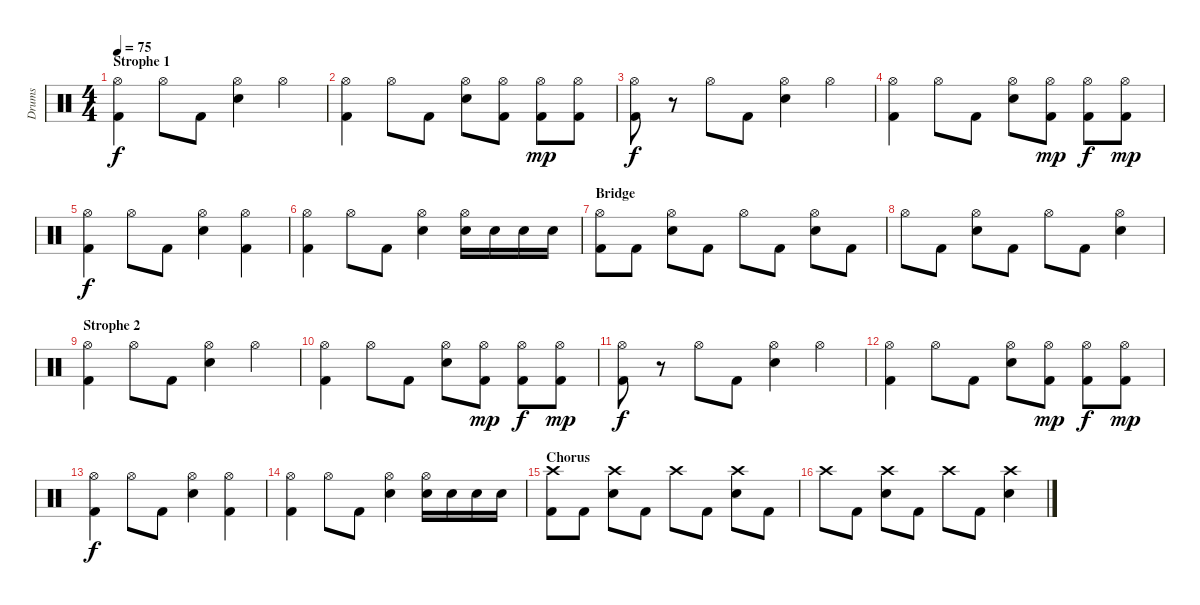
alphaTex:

\track ("Drums" "Drums") {instrument percussion}
\staff {score}
\articulation defaults
\ts (4 4)
\section ("" "Strophe 1")
\tempo 75
\clef neutral
\ks c
("Hi-Hat (open)" "Kick (hit) 2").4{dy f} "Hi-Hat (open)".8 "Kick (hit) 2".8 ("Hi-Hat (open)" "Snare (hit) 2").4 "Hi-Hat (open)".4 |
("Hi-Hat (open)" "Kick (hit) 2").4 "Hi-Hat (open)".8 "Kick (hit) 2".8 ("Hi-Hat (open)" "Snare (hit) 2").8 ("Hi-Hat (open)" "Kick (hit) 2").8 ("Hi-Hat (open)" "Kick (hit) 2").8{dy mp} ("Hi-Hat (open)" "Kick (hit) 2").8 |
("Hi-Hat (open)" "Kick (hit) 2").8{dy f} r.8 "Hi-Hat (open)".8 "Kick (hit) 2".8 ("Hi-Hat (open)" "Snare (hit) 2").4 "Hi-Hat (open)".4 |
("Hi-Hat (open)" "Kick (hit) 2").4 "Hi-Hat (open)".8 "Kick (hit) 2".8 ("Hi-Hat (open)" "Snare (hit) 2").8 ("Hi-Hat (open)" "Kick (hit) 2").8{dy mp} ("Hi-Hat (open)" "Kick (hit) 2").8{dy f} ("Hi-Hat (open)" "Kick (hit) 2").8{dy mp} |
("Hi-Hat (open)" "Kick (hit) 2").4{dy f} "Hi-Hat (open)".8 "Kick (hit) 2".8 ("Hi-Hat (open)" "Snare (hit) 2").4 ("Hi-Hat (open)" "Kick (hit) 2").4 |
("Hi-Hat (open)" "Kick (hit) 2").4 "Hi-Hat (open)".8 "Kick (hit) 2".8 ("Hi-Hat (open)" "Snare (hit) 2").4 ("Hi-Hat (open)" "Snare (hit) 2").16 "Snare (hit) 2".16 "Snare (hit) 2".16 "Snare (hit) 2".16 |
\section ("" "Bridge")
("Hi-Hat (open)" "Kick (hit) 2").8 "Kick (hit) 2".8 ("Hi-Hat (open)" "Snare (hit) 2").8 "Kick (hit) 2".8 "Hi-Hat (open)".8 "Kick (hit) 2".8 ("Hi-Hat (open)" "Snare (hit) 2").8 "Kick (hit) 2".8 |
"Hi-Hat (open)".8 "Kick (hit) 2".8 ("Hi-Hat (open)" "Snare (hit) 2").8 "Kick (hit) 2".8 "Hi-Hat (open)".8 "Kick (hit) 2".8 ("Hi-Hat (open)" "Snare (hit) 2").4 |
\section ("" "Strophe 2")
("Hi-Hat (open)" "Kick (hit) 2").4 "Hi-Hat (open)".8 "Kick (hit) 2".8 ("Hi-Hat (open)" "Snare (hit) 2").4 "Hi-Hat (open)".4 |
("Hi-Hat (open)" "Kick (hit) 2").4 "Hi-Hat (open)".8 "Kick (hit) 2".8 ("Hi-Hat (open)" "Snare (hit) 2").8 ("Hi-Hat (open)" "Kick (hit) 2").8{dy mp} ("Hi-Hat (open)" "Kick (hit) 2").8{dy f} ("Hi-Hat (open)" "Kick (hit) 2").8{dy mp} |
("Hi-Hat (open)" "Kick (hit) 2").8{dy f} r.8 "Hi-Hat (open)".8 "Kick (hit) 2".8 ("Hi-Hat (open)" "Snare (hit) 2").4 "Hi-Hat (open)".4 |
("Hi-Hat (open)" "Kick (hit) 2").4 "Hi-Hat (open)".8 "Kick (hit) 2".8 ("Hi-Hat (open)" "Snare (hit) 2").8 ("Hi-Hat (open)" "Kick (hit) 2").8{dy mp} ("Hi-Hat (open)" "Kick (hit) 2").8{dy f} ("Hi-Hat (open)" "Kick (hit) 2").8{dy mp} |
("Hi-Hat (open)" "Kick (hit) 2").4{dy f} "Hi-Hat (open)".8 "Kick (hit) 2".8 ("Hi-Hat (open)" "Snare (hit) 2").4 ("Hi-Hat (open)" "Kick (hit) 2").4 |
("Hi-Hat (open)" "Kick (hit) 2").4 "Hi-Hat (open)".8 "Kick (hit) 2".8 ("Hi-Hat (open)" "Snare (hit) 2").4 ("Hi-Hat (open)" "Snare (hit) 2").16 "Snare (hit) 2".16 "Snare (hit) 2".16 "Snare (hit) 2".16 |
\section ("" "Chorus")
("Crash high (hit)" "Kick (hit) 2").8 "Kick (hit) 2".8 ("Crash high (hit)" "Snare (hit) 2").8 "Kick (hit) 2".8 "Crash high (hit)".8 "Kick (hit) 2".8 ("Crash high (hit)" "Snare (hit) 2").8 "Kick (hit) 2".8 |
"Crash high (hit)".8 "Kick (hit) 2".8 ("Crash high (hit)" "Snare (hit) 2").8 "Kick (hit) 2".8 "Crash high (hit)".8 "Kick (hit) 2".8 ("Crash high (hit)" "Snare (hit) 2").4
